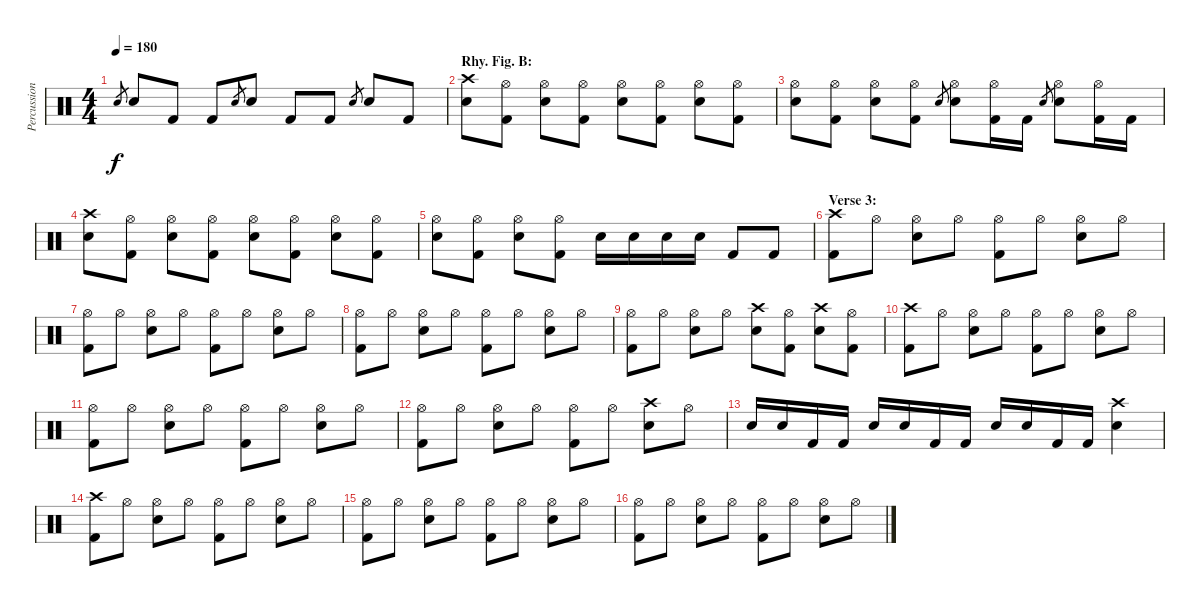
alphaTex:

\track ("Percussion" "Percussion") {instrument percussion}
\staff {score}
\articulation defaults
\ts (4 4)
\tempo 180
\clef neutral
\ks c "Snare (hit) 2".8{gr dy f} "Snare (hit) 2".8 "Kick (hit) 2".8 "Kick (hit) 2".8 "Snare (hit) 2".8{gr} "Snare (hit) 2".8 "Kick (hit) 2".8 "Kick (hit) 2".8 "Snare (hit) 2".8{gr} "Snare (hit) 2".8 "Kick (hit) 2".8
|
\section ("" "Rhy. Fig. B:")
("Crash high (hit)" "Snare (hit) 2").8 ("Hi-Hat (open)" "Kick (hit) 2").8 ("Hi-Hat (open)" "Snare (hit) 2").8 ("Hi-Hat (open)" "Kick (hit) 2").8 ("Hi-Hat (open)" "Snare (hit) 2").8 ("Hi-Hat (open)" "Kick (hit) 2").8 ("Hi-Hat (open)" "Snare (hit) 2").8 ("Hi-Hat (open)" "Kick (hit) 2").8 |
("Hi-Hat (open)" "Snare (hit) 2").8 ("Hi-Hat (open)" "Kick (hit) 2").8 ("Hi-Hat (open)" "Snare (hit) 2").8 ("Hi-Hat (open)" "Kick (hit) 2").8 "Snare (hit) 2".8{gr} ("Hi-Hat (open)" "Snare (hit) 2").8 ("Hi-Hat (open)" "Kick (hit) 2").16 "Kick (hit) 2".16 "Snare (hit) 2".8{gr} ("Hi-Hat (open)" "Snare (hit) 2").8 ("Hi-Hat (open)" "Kick (hit) 2").16 "Kick (hit) 2".16 |
("Crash high (hit)" "Snare (hit) 2").8 ("Hi-Hat (open)" "Kick (hit) 2").8 ("Hi-Hat (open)" "Snare (hit) 2").8 ("Hi-Hat (open)" "Kick (hit) 2").8 ("Hi-Hat (open)" "Snare (hit) 2").8 ("Hi-Hat (open)" "Kick (hit) 2").8 ("Hi-Hat (open)" "Snare (hit) 2").8 ("Hi-Hat (open)" "Kick (hit) 2").8 |
("Hi-Hat (open)" "Snare (hit) 2").8 ("Hi-Hat (open)" "Kick (hit) 2").8 ("Hi-Hat (open)" "Snare (hit) 2").8 ("Hi-Hat (open)" "Kick (hit) 2").8 "Snare (hit) 2".16 "Snare (hit) 2".16 "Snare (hit) 2".16 "Snare (hit) 2".16 "Kick (hit) 2".8 "Kick (hit) 2".8 |
\section ("" "Verse 3:")
("Crash high (hit)" "Kick (hit) 2").8 "Hi-Hat (open)".8 ("Hi-Hat (open)" "Snare (hit) 2").8 "Hi-Hat (open)".8 ("Hi-Hat (open)" "Kick (hit) 2").8 "Hi-Hat (open)".8 ("Hi-Hat (open)" "Snare (hit) 2").8 "Hi-Hat (open)".8 |
("Hi-Hat (open)" "Kick (hit) 2").8 "Hi-Hat (open)".8 ("Hi-Hat (open)" "Snare (hit) 2").8 "Hi-Hat (open)".8 ("Hi-Hat (open)" "Kick (hit) 2").8 "Hi-Hat (open)".8 ("Hi-Hat (open)" "Snare (hit) 2").8 "Hi-Hat (open)".8 |
("Hi-Hat (open)" "Kick (hit) 2").8 "Hi-Hat (open)".8 ("Hi-Hat (open)" "Snare (hit) 2").8 "Hi-Hat (open)".8 ("Hi-Hat (open)" "Kick (hit) 2").8 "Hi-Hat (open)".8 ("Hi-Hat (open)" "Snare (hit) 2").8 "Hi-Hat (open)".8 |
("Hi-Hat (open)" "Kick (hit) 2").8 "Hi-Hat (open)".8 ("Hi-Hat (open)" "Snare (hit) 2").8 "Hi-Hat (open)".8 ("Crash high (hit)" "Snare (hit) 2").8 ("Hi-Hat (open)" "Kick (hit) 2").8 ("Crash high (hit)" "Snare (hit) 2").8 ("Hi-Hat (open)" "Kick (hit) 2").8 |
("Crash high (hit)" "Kick (hit) 2").8 "Hi-Hat (open)".8 ("Hi-Hat (open)" "Snare (hit) 2").8 "Hi-Hat (open)".8 ("Hi-Hat (open)" "Kick (hit) 2").8 "Hi-Hat (open)".8 ("Hi-Hat (open)" "Snare (hit) 2").8 "Hi-Hat (open)".8 |
("Hi-Hat (open)" "Kick (hit) 2").8 "Hi-Hat (open)".8 ("Hi-Hat (open)" "Snare (hit) 2").8 "Hi-Hat (open)".8 ("Hi-Hat (open)" "Kick (hit) 2").8 "Hi-Hat (open)".8 ("Hi-Hat (open)" "Snare (hit) 2").8 "Hi-Hat (open)".8 |
("Hi-Hat (open)" "Kick (hit) 2").8 "Hi-Hat (open)".8 ("Hi-Hat (open)" "Snare (hit) 2").8 "Hi-Hat (open)".8 ("Hi-Hat (open)" "Kick (hit) 2").8 "Hi-Hat (open)".8 ("Crash high (hit)" "Snare (hit) 2").8 "Hi-Hat (open)".8 |
"Snare (hit) 2".16 "Snare (hit) 2".16 "Kick (hit) 2".16 "Kick (hit) 2".16 "Snare (hit) 2".16 "Snare (hit) 2".16 "Kick (hit) 2".16 "Kick (hit) 2".16 "Snare (hit) 2".16 "Snare (hit) 2".16 "Kick (hit) 2".16 "Kick (hit) 2".16 ("Crash high (hit)" "Snare (hit) 2").4 |
("Crash high (hit)" "Kick (hit) 2").8 "Hi-Hat (open)".8 ("Hi-Hat (open)" "Snare (hit) 2").8 "Hi-Hat (open)".8 ("Hi-Hat (open)" "Kick (hit) 2").8 "Hi-Hat (open)".8 ("Hi-Hat (open)" "Snare (hit) 2").8 "Hi-Hat (open)".8 |
("Hi-Hat (open)" "Kick (hit) 2").8 "Hi-Hat (open)".8 ("Hi-Hat (open)" "Snare (hit) 2").8 "Hi-Hat (open)".8 ("Hi-Hat (open)" "Kick (hit) 2").8 "Hi-Hat (open)".8 ("Hi-Hat (open)" "Snare (hit) 2").8 "Hi-Hat (open)".8 |
("Hi-Hat (open)" "Kick (hit) 2").8 "Hi-Hat (open)".8 ("Hi-Hat (open)" "Snare (hit) 2").8 "Hi-Hat (open)".8 ("Hi-Hat (open)" "Kick (hit) 2").8 "Hi-Hat (open)".8 ("Hi-Hat (open)" "Snare (hit) 2").8 "Hi-Hat (open)".8
